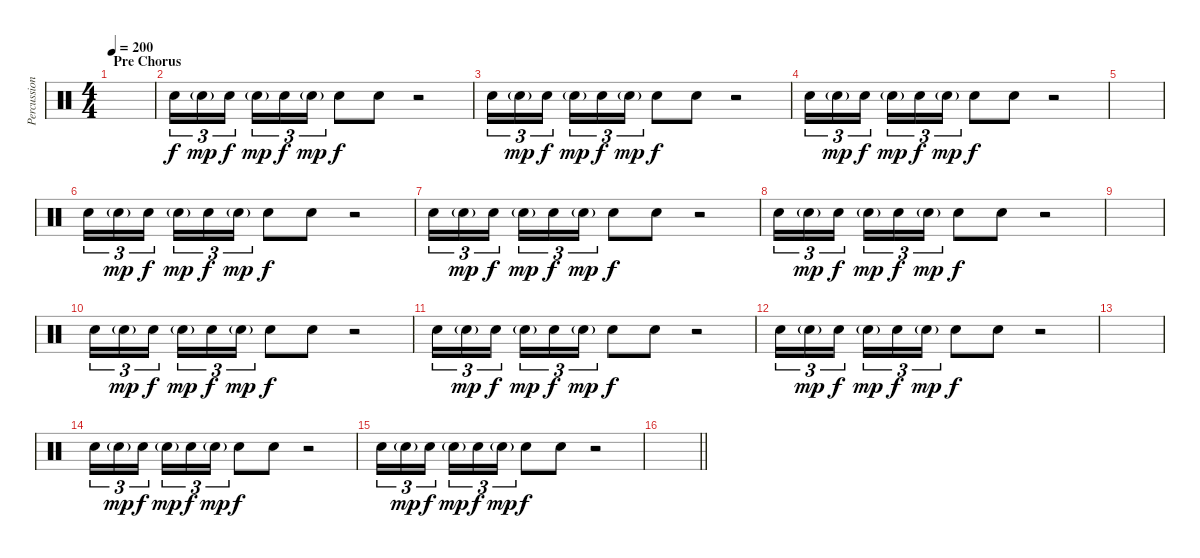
\track ("Percussion" "Percussion") {instrument percussion}
\staff {score}
\articulation defaults
\ts (4 4)
\section ("" "Pre Chorus")
\tempo 200
\clef neutral
\ks c
|
"Snare (hit) 2".16{tu (3 2) dy f} "Snare (hit) 2"{g}.16{tu (3 2) dy mp} "Snare (hit) 2".16{tu (3 2) dy f beam splitsecondary} "Snare (hit) 2"{g}.16{tu (3 2) dy mp} "Snare (hit) 2".16{tu (3 2) dy f} "Snare (hit) 2"{g}.16{tu (3 2) dy mp} "Snare (hit) 2".8{dy f} "Snare (hit) 2".8 r.2 |
"Snare (hit) 2".16{tu (3 2)} "Snare (hit) 2"{g}.16{tu (3 2) dy mp} "Snare (hit) 2".16{tu (3 2) dy f beam splitsecondary} "Snare (hit) 2"{g}.16{tu (3 2) dy mp} "Snare (hit) 2".16{tu (3 2) dy f} "Snare (hit) 2"{g}.16{tu (3 2) dy mp} "Snare (hit) 2".8{dy f} "Snare (hit) 2".8 r.2 |
"Snare (hit) 2".16{tu (3 2)} "Snare (hit) 2"{g}.16{tu (3 2) dy mp} "Snare (hit) 2".16{tu (3 2) dy f beam splitsecondary} "Snare (hit) 2"{g}.16{tu (3 2) dy mp} "Snare (hit) 2".16{tu (3 2) dy f} "Snare (hit) 2"{g}.16{tu (3 2) dy mp} "Snare (hit) 2".8{dy f} "Snare (hit) 2".8 r.2 |
|
"Snare (hit) 2".16{tu (3 2)} "Snare (hit) 2"{g}.16{tu (3 2) dy mp} "Snare (hit) 2".16{tu (3 2) dy f beam splitsecondary} "Snare (hit) 2"{g}.16{tu (3 2) dy mp} "Snare (hit) 2".16{tu (3 2) dy f} "Snare (hit) 2"{g}.16{tu (3 2) dy mp} "Snare (hit) 2".8{dy f} "Snare (hit) 2".8 r.2 |
"Snare (hit) 2".16{tu (3 2)} "Snare (hit) 2"{g}.16{tu (3 2) dy mp} "Snare (hit) 2".16{tu (3 2) dy f beam splitsecondary} "Snare (hit) 2"{g}.16{tu (3 2) dy mp} "Snare (hit) 2".16{tu (3 2) dy f} "Snare (hit) 2"{g}.16{tu (3 2) dy mp} "Snare (hit) 2".8{dy f} "Snare (hit) 2".8 r.2 |
"Snare (hit) 2".16{tu (3 2)} "Snare (hit) 2"{g}.16{tu (3 2) dy mp} "Snare (hit) 2".16{tu (3 2) dy f beam splitsecondary} "Snare (hit) 2"{g}.16{tu (3 2) dy mp} "Snare (hit) 2".16{tu (3 2) dy f} "Snare (hit) 2"{g}.16{tu (3 2) dy mp} "Snare (hit) 2".8{dy f} "Snare (hit) 2".8 r.2 |
|
"Snare (hit) 2".16{tu (3 2)} "Snare (hit) 2"{g}.16{tu (3 2) dy mp} "Snare (hit) 2".16{tu (3 2) dy f beam splitsecondary} "Snare (hit) 2"{g}.16{tu (3 2) dy mp} "Snare (hit) 2".16{tu (3 2) dy f} "Snare (hit) 2"{g}.16{tu (3 2) dy mp} "Snare (hit) 2".8{dy f} "Snare (hit) 2".8 r.2 |
"Snare (hit) 2".16{tu (3 2)} "Snare (hit) 2"{g}.16{tu (3 2) dy mp} "Snare (hit) 2".16{tu (3 2) dy f beam splitsecondary} "Snare (hit) 2"{g}.16{tu (3 2) dy mp} "Snare (hit) 2".16{tu (3 2) dy f} "Snare (hit) 2"{g}.16{tu (3 2) dy mp} "Snare (hit) 2".8{dy f} "Snare (hit) 2".8 r.2 |
"Snare (hit) 2".16{tu (3 2)} "Snare (hit) 2"{g}.16{tu (3 2) dy mp} "Snare (hit) 2".16{tu (3 2) dy f beam splitsecondary} "Snare (hit) 2"{g}.16{tu (3 2) dy mp} "Snare (hit) 2".16{tu (3 2) dy f} "Snare (hit) 2"{g}.16{tu (3 2) dy mp} "Snare (hit) 2".8{dy f} "Snare (hit) 2".8 r.2 |
|
"Snare (hit) 2".16{tu (3 2)} "Snare (hit) 2"{g}.16{tu (3 2) dy mp} "Snare (hit) 2".16{tu (3 2) dy f beam splitsecondary} "Snare (hit) 2"{g}.16{tu (3 2) dy mp} "Snare (hit) 2".16{tu (3 2) dy f} "Snare (hit) 2"{g}.16{tu (3 2) dy mp} "Snare (hit) 2".8{dy f} "Snare (hit) 2".8 r.2 |
"Snare (hit) 2".16{tu (3 2)} "Snare (hit) 2"{g}.16{tu (3 2) dy mp} "Snare (hit) 2".16{tu (3 2) dy f beam splitsecondary} "Snare (hit) 2"{g}.16{tu (3 2) dy mp} "Snare (hit) 2".16{tu (3 2) dy f} "Snare (hit) 2"{g}.16{tu (3 2) dy mp} "Snare (hit) 2".8{dy f} "Snare (hit) 2".8 r.2 |
\barLineRight lightlight
